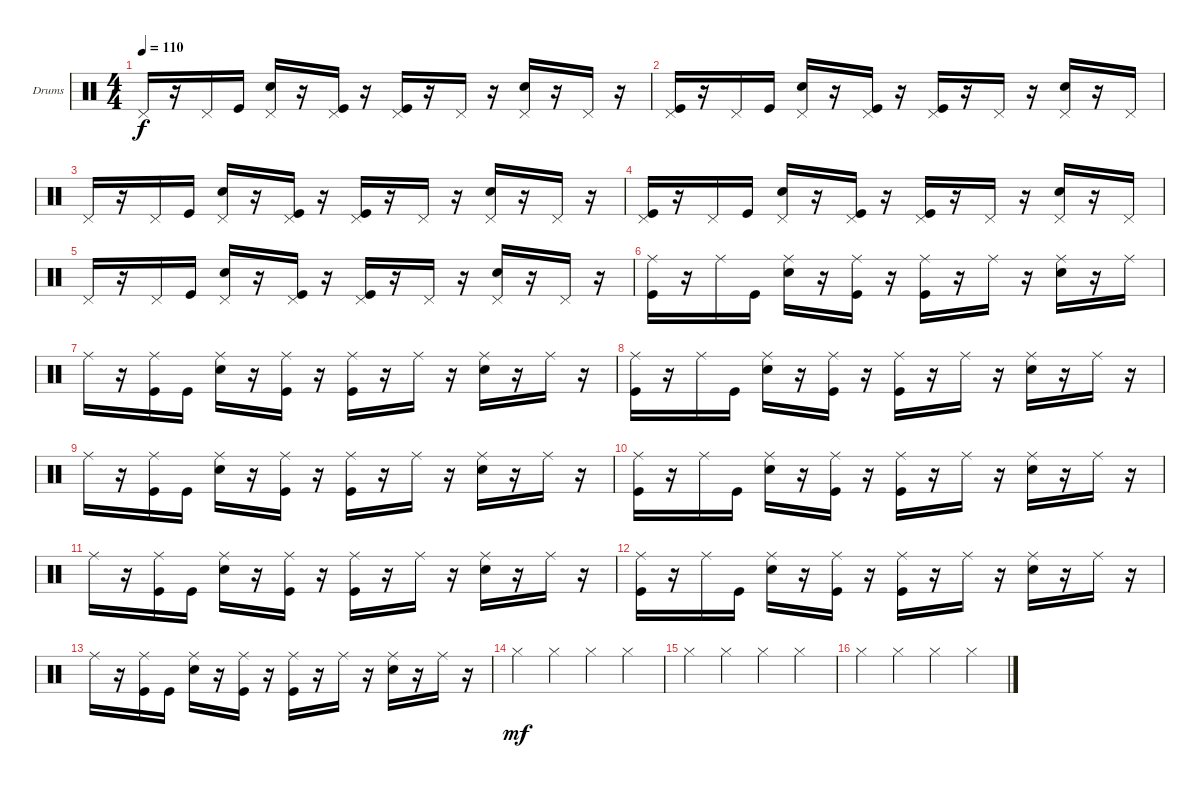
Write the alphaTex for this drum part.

\defaultSystemsLayout 4
\bracketExtendMode groupsimilarinstruments
\firstSystemTrackNameOrientation horizontal
\otherSystemsTrackNameOrientation horizontal
\track ("Drumkit" "Drums") {instrument percussion}
\staff {score}
\articulation defaults
\ts (4 4)
\tempo 110
\clef neutral
\ks c "Pedal Hi-Hat (hit)".16{dy f}
r.16 "Pedal Hi-Hat (hit)".16 "Kick (hit)".16 ("Snare (hit) 2" "Pedal Hi-Hat (hit)").16 r.16 ("Kick (hit)" "Pedal Hi-Hat (hit)").16 r.16 ("Kick (hit)" "Pedal Hi-Hat (hit)").16 r.16 "Pedal Hi-Hat (hit)".16 r.16 ("Snare (hit) 2" "Pedal Hi-Hat (hit)").16 r.16 "Pedal Hi-Hat (hit)".16 r.16 |
("Kick (hit)" "Pedal Hi-Hat (hit)").16 r.16 "Pedal Hi-Hat (hit)".16 "Kick (hit)".16 ("Snare (hit) 2" "Pedal Hi-Hat (hit)").16 r.16 ("Kick (hit)" "Pedal Hi-Hat (hit)").16 r.16 ("Kick (hit)" "Pedal Hi-Hat (hit)").16 r.16 "Pedal Hi-Hat (hit)".16 r.16 ("Snare (hit) 2" "Pedal Hi-Hat (hit)").16 r.16 "Pedal Hi-Hat (hit)".16 |
"Pedal Hi-Hat (hit)".16 r.16 "Pedal Hi-Hat (hit)".16 "Kick (hit)".16 ("Snare (hit) 2" "Pedal Hi-Hat (hit)").16 r.16 ("Kick (hit)" "Pedal Hi-Hat (hit)").16 r.16 ("Kick (hit)" "Pedal Hi-Hat (hit)").16 r.16 "Pedal Hi-Hat (hit)".16 r.16 ("Snare (hit) 2" "Pedal Hi-Hat (hit)").16 r.16 "Pedal Hi-Hat (hit)".16 r.16 |
("Kick (hit)" "Pedal Hi-Hat (hit)").16 r.16 "Pedal Hi-Hat (hit)".16 "Kick (hit)".16 ("Snare (hit) 2" "Pedal Hi-Hat (hit)").16 r.16 ("Kick (hit)" "Pedal Hi-Hat (hit)").16 r.16 ("Kick (hit)" "Pedal Hi-Hat (hit)").16 r.16 "Pedal Hi-Hat (hit)".16 r.16 ("Snare (hit) 2" "Pedal Hi-Hat (hit)").16 r.16 "Pedal Hi-Hat (hit)".16 |
"Pedal Hi-Hat (hit)".16 r.16 "Pedal Hi-Hat (hit)".16 "Kick (hit)".16 ("Snare (hit) 2" "Pedal Hi-Hat (hit)").16 r.16 ("Kick (hit)" "Pedal Hi-Hat (hit)").16 r.16 ("Kick (hit)" "Pedal Hi-Hat (hit)").16 r.16 "Pedal Hi-Hat (hit)".16 r.16 ("Snare (hit) 2" "Pedal Hi-Hat (hit)").16 r.16 "Pedal Hi-Hat (hit)".16 r.16 |
("Kick (hit)" "Ride (middle)").16 r.16 "Ride (middle)".16 "Kick (hit)".16 ("Snare (hit) 2" "Ride (middle)").16 r.16 ("Kick (hit)" "Ride (middle)").16 r.16 ("Kick (hit)" "Ride (middle)").16 r.16 "Ride (middle)".16 r.16 ("Ride (middle)" "Snare (hit) 2").16 r.16 "Ride (middle)".16 |
"Ride (middle)".16 r.16 ("Ride (middle)" "Kick (hit)").16 "Kick (hit)".16 ("Ride (middle)" "Snare (hit) 2").16 r.16 ("Ride (middle)" "Kick (hit)").16 r.16 ("Ride (middle)" "Kick (hit)").16 r.16 "Ride (middle)".16 r.16 ("Ride (middle)" "Snare (hit) 2").16 r.16 "Ride (middle)".16 r.16 |
("Kick (hit)" "Ride (middle)").16 r.16 "Ride (middle)".16 "Kick (hit)".16 ("Snare (hit) 2" "Ride (middle)").16 r.16 ("Kick (hit)" "Ride (middle)").16 r.16 ("Kick (hit)" "Ride (middle)").16 r.16 "Ride (middle)".16 r.16 ("Ride (middle)" "Snare (hit) 2").16 r.16 "Ride (middle)".16 r.16 |
"Ride (middle)".16 r.16 ("Ride (middle)" "Kick (hit)").16 "Kick (hit)".16 ("Ride (middle)" "Snare (hit) 2").16 r.16 ("Ride (middle)" "Kick (hit)").16 r.16 ("Ride (middle)" "Kick (hit)").16 r.16 "Ride (middle)".16 r.16 ("Ride (middle)" "Snare (hit) 2").16 r.16 "Ride (middle)".16 r.16 |
("Kick (hit)" "Ride (middle)").16 r.16 "Ride (middle)".16 "Kick (hit)".16 ("Snare (hit) 2" "Ride (middle)").16 r.16 ("Kick (hit)" "Ride (middle)").16 r.16 ("Kick (hit)" "Ride (middle)").16 r.16 "Ride (middle)".16 r.16 ("Ride (middle)" "Snare (hit) 2").16 r.16 "Ride (middle)".16 r.16 |
"Ride (middle)".16 r.16 ("Ride (middle)" "Kick (hit)").16 "Kick (hit)".16 ("Ride (middle)" "Snare (hit) 2").16 r.16 ("Ride (middle)" "Kick (hit)").16 r.16 ("Ride (middle)" "Kick (hit)").16 r.16 "Ride (middle)".16 r.16 ("Ride (middle)" "Snare (hit) 2").16 r.16 "Ride (middle)".16 r.16 |
("Kick (hit)" "Ride (middle)").16 r.16 "Ride (middle)".16 "Kick (hit)".16 ("Snare (hit) 2" "Ride (middle)").16 r.16 ("Kick (hit)" "Ride (middle)").16 r.16 ("Kick (hit)" "Ride (middle)").16 r.16 "Ride (middle)".16 r.16 ("Ride (middle)" "Snare (hit) 2").16 r.16 "Ride (middle)".16 r.16 |
"Ride (middle)".16 r.16 ("Ride (middle)" "Kick (hit)").16 "Kick (hit)".16 ("Ride (middle)" "Snare (hit) 2").16 r.16 ("Ride (middle)" "Kick (hit)").16 r.16 ("Ride (middle)" "Kick (hit)").16 r.16 "Ride (middle)".16 r.16 ("Ride (middle)" "Snare (hit) 2").16 r.16 "Ride (middle)".16 r.16 |
"Hi-Hat (closed)".4{dy mf} "Hi-Hat (closed)".4 "Hi-Hat (closed)".4 "Hi-Hat (closed)".4 |
"Hi-Hat (closed)".4 "Hi-Hat (closed)".4 "Hi-Hat (closed)".4 "Hi-Hat (closed)".4 |
"Hi-Hat (closed)".4 "Hi-Hat (closed)".4 "Hi-Hat (closed)".4 "Hi-Hat (closed)".4
